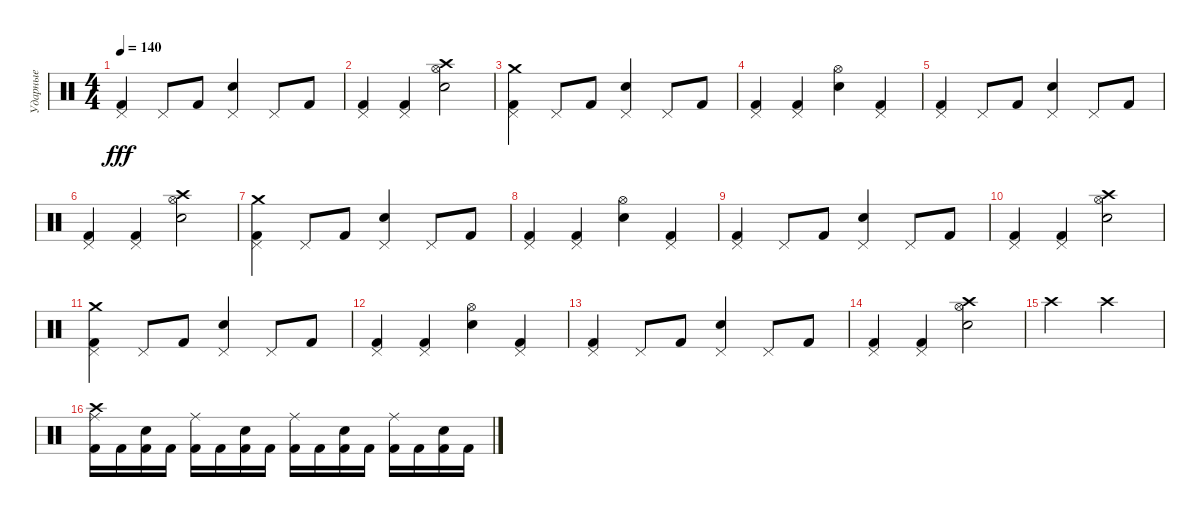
\track ("Ударные" "Ударные") {instrument percussion}
\staff {score}
\articulation defaults
\ts (4 4)
\tempo 140
\clef neutral
\ks c
("Kick (hit) 2" "Pedal Hi-Hat (hit)").4{dy fff} "Pedal Hi-Hat (hit)".8 "Kick (hit) 2".8 ("Snare (hit) 2" "Pedal Hi-Hat (hit)").4 "Pedal Hi-Hat (hit)".8 "Kick (hit) 2".8 |
("Kick (hit) 2" "Pedal Hi-Hat (hit)").4 ("Kick (hit) 2" "Pedal Hi-Hat (hit)").4 ("Snare (hit) 2" "Hi-Hat (open)" "Crash high (hit)").2 |
("Kick (hit) 2" "Pedal Hi-Hat (hit)" "Crash medium (hit)").4 "Pedal Hi-Hat (hit)".8 "Kick (hit) 2".8 ("Snare (hit) 2" "Pedal Hi-Hat (hit)").4 "Pedal Hi-Hat (hit)".8 "Kick (hit) 2".8 |
("Kick (hit) 2" "Pedal Hi-Hat (hit)").4 ("Kick (hit) 2" "Pedal Hi-Hat (hit)").4 ("Snare (hit) 2" "Hi-Hat (open)").4 ("Kick (hit) 2" "Pedal Hi-Hat (hit)").4 |
("Kick (hit) 2" "Pedal Hi-Hat (hit)").4 "Pedal Hi-Hat (hit)".8 "Kick (hit) 2".8 ("Snare (hit) 2" "Pedal Hi-Hat (hit)").4 "Pedal Hi-Hat (hit)".8 "Kick (hit) 2".8 |
("Kick (hit) 2" "Pedal Hi-Hat (hit)").4 ("Kick (hit) 2" "Pedal Hi-Hat (hit)").4 ("Snare (hit) 2" "Hi-Hat (open)" "Crash high (hit)").2 |
("Kick (hit) 2" "Pedal Hi-Hat (hit)" "Crash medium (hit)").4 "Pedal Hi-Hat (hit)".8 "Kick (hit) 2".8 ("Snare (hit) 2" "Pedal Hi-Hat (hit)").4 "Pedal Hi-Hat (hit)".8 "Kick (hit) 2".8 |
("Kick (hit) 2" "Pedal Hi-Hat (hit)").4 ("Kick (hit) 2" "Pedal Hi-Hat (hit)").4 ("Snare (hit) 2" "Hi-Hat (open)").4 ("Kick (hit) 2" "Pedal Hi-Hat (hit)").4 |
("Kick (hit) 2" "Pedal Hi-Hat (hit)").4 "Pedal Hi-Hat (hit)".8 "Kick (hit) 2".8 ("Snare (hit) 2" "Pedal Hi-Hat (hit)").4 "Pedal Hi-Hat (hit)".8 "Kick (hit) 2".8 |
("Kick (hit) 2" "Pedal Hi-Hat (hit)").4 ("Kick (hit) 2" "Pedal Hi-Hat (hit)").4 ("Snare (hit) 2" "Hi-Hat (open)" "Crash high (hit)").2 |
("Kick (hit) 2" "Pedal Hi-Hat (hit)" "Crash medium (hit)").4 "Pedal Hi-Hat (hit)".8 "Kick (hit) 2".8 ("Snare (hit) 2" "Pedal Hi-Hat (hit)").4 "Pedal Hi-Hat (hit)".8 "Kick (hit) 2".8 |
("Kick (hit) 2" "Pedal Hi-Hat (hit)").4 ("Kick (hit) 2" "Pedal Hi-Hat (hit)").4 ("Snare (hit) 2" "Hi-Hat (open)").4 ("Kick (hit) 2" "Pedal Hi-Hat (hit)").4 |
("Kick (hit) 2" "Pedal Hi-Hat (hit)").4 "Pedal Hi-Hat (hit)".8 "Kick (hit) 2".8 ("Snare (hit) 2" "Pedal Hi-Hat (hit)").4 "Pedal Hi-Hat (hit)".8 "Kick (hit) 2".8 |
("Kick (hit) 2" "Pedal Hi-Hat (hit)").4 ("Kick (hit) 2" "Pedal Hi-Hat (hit)").4 ("Snare (hit) 2" "Hi-Hat (open)" "Crash high (hit)").2 |
"Crash high (hit)".2 "Crash high (hit)".2 |
("Kick (hit) 2" "Ride (middle)" "Crash high (hit)").16 "Kick (hit) 2".16 ("Kick (hit) 2" "Snare (hit) 2").16 "Kick (hit) 2".16 ("Kick (hit) 2" "Ride (middle)").16 "Kick (hit) 2".16 ("Kick (hit) 2" "Snare (hit) 2").16 "Kick (hit) 2".16 ("Kick (hit) 2" "Ride (middle)").16 "Kick (hit) 2".16 ("Kick (hit) 2" "Snare (hit) 2").16 "Kick (hit) 2".16 ("Kick (hit) 2" "Ride (middle)").16 "Kick (hit) 2".16 ("Kick (hit) 2" "Snare (hit) 2").16 "Kick (hit) 2".16
